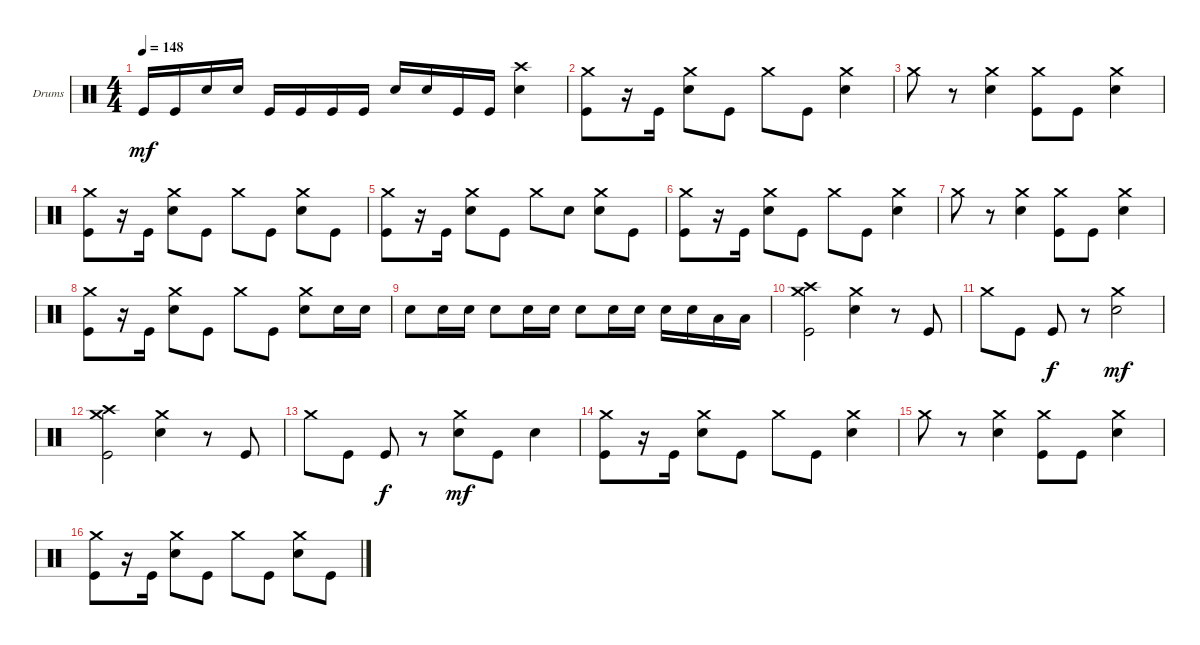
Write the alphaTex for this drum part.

\bracketExtendMode groupsimilarinstruments
\firstSystemTrackNameOrientation horizontal
\otherSystemsTrackNameOrientation horizontal
\track ("Drumkit" "Drums") {instrument percussion}
\staff {score}
\articulation defaults
\ts (4 4)
\tempo 148
\clef neutral
\scale
0.333333
\ks c "Kick (hit)".16{dy mf} "Kick (hit)".16 "Snare (hit) 2".16 "Snare (hit) 2".16 "Kick (hit)".16 "Kick (hit)".16 "Kick (hit)".16 "Kick (hit)".16 "Snare (hit) 2".16 "Snare (hit) 2".16 "Kick (hit)".16 "Kick (hit)".16
("Crash high (hit)" "Snare (hit) 2").4 |
\scale
0.333333 ("Kick (hit)" "Crash medium (hit)").8 r.16 "Kick (hit)".16 ("Snare (hit) 2" "Crash medium (hit)").8 "Kick (hit)".8 "Crash medium (hit)".8 "Kick (hit)".8 ("Snare (hit) 2" "Crash medium (hit)").4 |
\scale
0.333333 "Crash medium (hit)".8 r.8 ("Snare (hit) 2" "Crash medium (hit)").4 ("Kick (hit)" "Crash medium (hit)").8 "Kick (hit)".8 ("Snare (hit) 2" "Crash medium (hit)").4 |
\scale
0.333333 ("Kick (hit)" "Crash medium (hit)").8 r.16 "Kick (hit)".16 ("Snare (hit) 2" "Crash medium (hit)").8 "Kick (hit)".8 "Crash medium (hit)".8 "Kick (hit)".8 ("Snare (hit) 2" "Crash medium (hit)").8 "Kick (hit)".8 |
\scale
0.333333 ("Kick (hit)" "Crash medium (hit)").8 r.16 "Kick (hit)".16 ("Snare (hit) 2" "Crash medium (hit)").8 "Kick (hit)".8 "Crash medium (hit)".8 "Snare (hit) 2".8 ("Snare (hit) 2" "Crash medium (hit)").8 "Kick (hit)".8 |
\scale
0.333333 ("Kick (hit)" "Crash medium (hit)").8 r.16 "Kick (hit)".16 ("Snare (hit) 2" "Crash medium (hit)").8 "Kick (hit)".8 "Crash medium (hit)".8 "Kick (hit)".8 ("Snare (hit) 2" "Crash medium (hit)").4 |
\scale
0.333333 "Crash medium (hit)".8 r.8 ("Snare (hit) 2" "Crash medium (hit)").4 ("Kick (hit)" "Crash medium (hit)").8 "Kick (hit)".8 ("Snare (hit) 2" "Crash medium (hit)").4 |
\scale
0.333333 ("Kick (hit)" "Crash medium (hit)").8 r.16 "Kick (hit)".16 ("Snare (hit) 2" "Crash medium (hit)").8 "Kick (hit)".8 "Crash medium (hit)".8 "Kick (hit)".8 ("Snare (hit) 2" "Crash medium (hit)").8 "Snare (hit) 2".16 "Snare (hit) 2".16 |
\scale
0.333333 "Snare (hit) 2".8 "Snare (hit) 2".16 "Snare (hit) 2".16 "Snare (hit) 2".8 "Snare (hit) 2".16 "Snare (hit) 2".16 "Snare (hit) 2".8 "Snare (hit) 2".16 "Snare (hit) 2".16 "Snare (hit) 2".16 "Snare (hit) 2".16 "Low Tom (hit)".16 "Low Tom (hit)".16 |
\scale
0.333333 ("Kick (hit)" "Crash high (hit)" "Crash medium (hit)").2 ("Snare (hit) 2" "Crash medium (hit)").4 r.8 "Kick (hit)".8 |
\scale
0.333333 "Crash medium (hit)".8 "Kick (hit)".8 "Kick (hit)".8{dy f} r.8 ("Snare (hit) 2" "Crash medium (hit)").2{dy mf} |
\scale
0.333333 ("Kick (hit)" "Crash high (hit)" "Crash medium (hit)").2 ("Snare (hit) 2" "Crash medium (hit)").4 r.8 "Kick (hit)".8 |
\scale
0.333333 "Crash medium (hit)".8 "Kick (hit)".8 "Kick (hit)".8{dy f} r.8 ("Snare (hit) 2" "Crash medium (hit)").8{dy mf} "Kick (hit)".8 "Snare (hit) 2".4 |
\scale
0.333333 ("Kick (hit)" "Crash medium (hit)").8 r.16 "Kick (hit)".16 ("Snare (hit) 2" "Crash medium (hit)").8 "Kick (hit)".8 "Crash medium (hit)".8 "Kick (hit)".8 ("Snare (hit) 2" "Crash medium (hit)").4 |
\scale
0.333333 "Crash medium (hit)".8 r.8 ("Snare (hit) 2" "Crash medium (hit)").4 ("Kick (hit)" "Crash medium (hit)").8 "Kick (hit)".8 ("Snare (hit) 2" "Crash medium (hit)").4 |
\scale
0.333333 ("Kick (hit)" "Crash medium (hit)").8 r.16 "Kick (hit)".16 ("Snare (hit) 2" "Crash medium (hit)").8 "Kick (hit)".8 "Crash medium (hit)".8 "Kick (hit)".8 ("Snare (hit) 2" "Crash medium (hit)").8 "Kick (hit)".8
